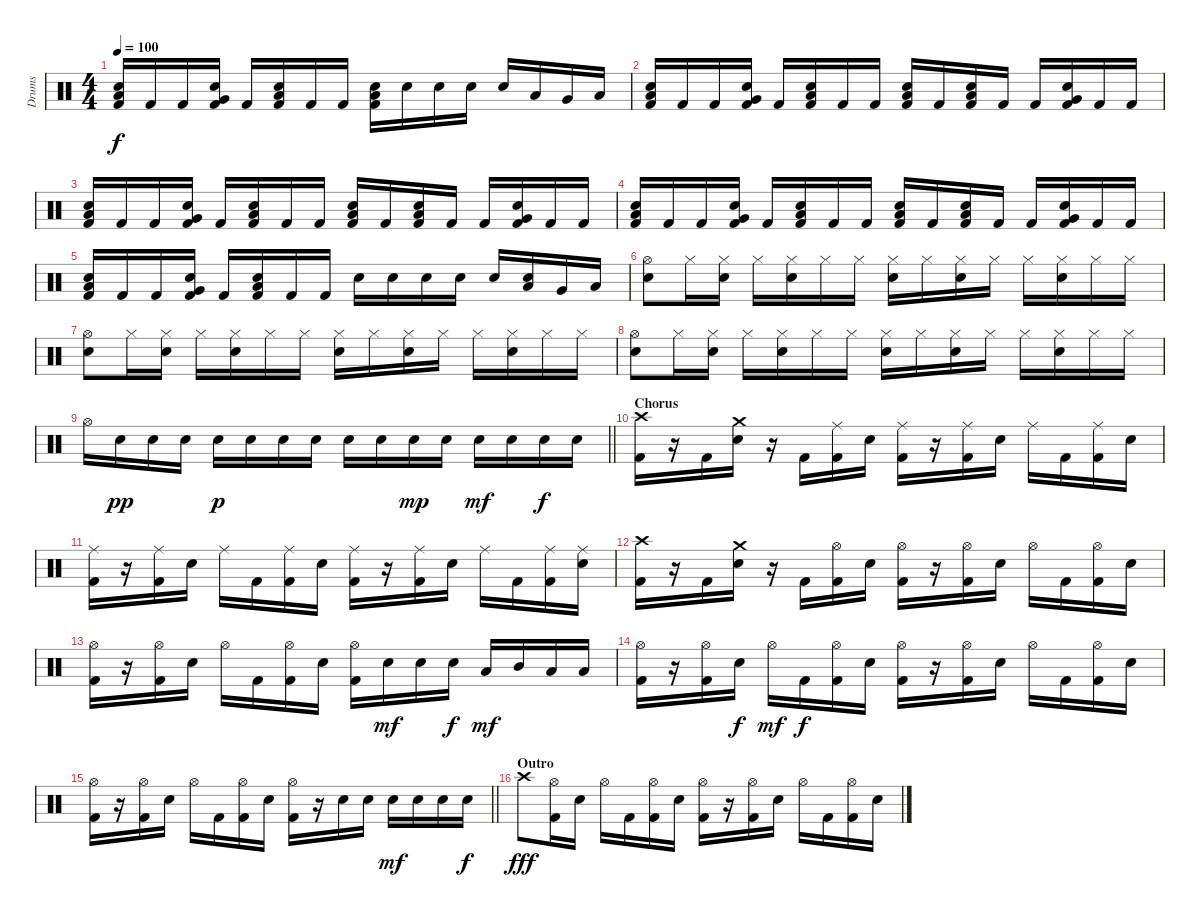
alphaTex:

\track ("Drums" "Drums") {instrument percussion}
\staff {score}
\articulation defaults
\ts (4 4)
\tempo 100
\clef neutral
\ks c
("Low Floor Tom (hit)" "Electric Snare (hit)" "Kick (hit) 2").16{dy f} "Kick (hit) 2".16 "Kick (hit) 2".16 ("Very Low Tom (hit)" "Electric Snare (hit)" "Kick (hit) 2").16 "Kick (hit) 2".16 ("Low Floor Tom (hit)" "Electric Snare (hit)" "Kick (hit) 2").16 "Kick (hit) 2".16 "Kick (hit) 2".16 ("Low Tom (hit)" "Electric Snare (hit)" "Kick (hit) 2").16 "Electric Snare (hit)".16 "Electric Snare (hit)".16 "Electric Snare (hit)".16 "Electric Snare (hit)".16 "Low Tom (hit)".16 "Very Low Tom (hit)".16 "Low Floor Tom (hit)".16 |
("Low Floor Tom (hit)" "Electric Snare (hit)" "Kick (hit) 2").16 "Kick (hit) 2".16 "Kick (hit) 2".16 ("Very Low Tom (hit)" "Electric Snare (hit)" "Kick (hit) 2").16 "Kick (hit) 2".16 ("Low Floor Tom (hit)" "Electric Snare (hit)" "Kick (hit) 2").16 "Kick (hit) 2".16 "Kick (hit) 2".16 ("Low Tom (hit)" "Electric Snare (hit)" "Kick (hit) 2").16 "Kick (hit) 2".16 ("Low Tom (hit)" "Electric Snare (hit)" "Kick (hit) 2").16 "Kick (hit) 2".16 "Kick (hit) 2".16 ("Very Low Tom (hit)" "Electric Snare (hit)" "Kick (hit) 2").16 "Kick (hit) 2".16 "Kick (hit) 2".16 |
("Low Floor Tom (hit)" "Electric Snare (hit)" "Kick (hit) 2").16 "Kick (hit) 2".16 "Kick (hit) 2".16 ("Very Low Tom (hit)" "Electric Snare (hit)" "Kick (hit) 2").16 "Kick (hit) 2".16 ("Low Floor Tom (hit)" "Electric Snare (hit)" "Kick (hit) 2").16 "Kick (hit) 2".16 "Kick (hit) 2".16 ("Low Tom (hit)" "Electric Snare (hit)" "Kick (hit) 2").16 "Kick (hit) 2".16 ("Low Tom (hit)" "Electric Snare (hit)" "Kick (hit) 2").16 "Kick (hit) 2".16 "Kick (hit) 2".16 ("Very Low Tom (hit)" "Electric Snare (hit)" "Kick (hit) 2").16 "Kick (hit) 2".16 "Kick (hit) 2".16 |
("Low Floor Tom (hit)" "Electric Snare (hit)" "Kick (hit) 2").16 "Kick (hit) 2".16 "Kick (hit) 2".16 ("Very Low Tom (hit)" "Electric Snare (hit)" "Kick (hit) 2").16 "Kick (hit) 2".16 ("Low Floor Tom (hit)" "Electric Snare (hit)" "Kick (hit) 2").16 "Kick (hit) 2".16 "Kick (hit) 2".16 ("Low Tom (hit)" "Electric Snare (hit)" "Kick (hit) 2").16 "Kick (hit) 2".16 ("Low Tom (hit)" "Electric Snare (hit)" "Kick (hit) 2").16 "Kick (hit) 2".16 "Kick (hit) 2".16 ("Very Low Tom (hit)" "Electric Snare (hit)" "Kick (hit) 2").16 "Kick (hit) 2".16 "Kick (hit) 2".16 |
("Low Floor Tom (hit)" "Electric Snare (hit)" "Kick (hit) 2").16 "Kick (hit) 2".16 "Kick (hit) 2".16 ("Very Low Tom (hit)" "Electric Snare (hit)" "Kick (hit) 2").16 "Kick (hit) 2".16 ("Low Floor Tom (hit)" "Electric Snare (hit)" "Kick (hit) 2").16 "Kick (hit) 2".16 "Kick (hit) 2".16 "Electric Snare (hit)".16 "Electric Snare (hit)".16 "Electric Snare (hit)".16 "Electric Snare (hit)".16 "Electric Snare (hit)".16 ("Low Tom (hit)" "Electric Snare (hit)").16 "Very Low Tom (hit)".16 "Low Floor Tom (hit)".16 |
("Hi-Hat (open)" "Electric Snare (hit)").8 "Hi-Hat (closed)".16 ("Hi-Hat (closed)" "Electric Snare (hit)").16 "Hi-Hat (closed)".16 ("Hi-Hat (closed)" "Electric Snare (hit)").16 "Hi-Hat (closed)".16 "Hi-Hat (closed)".16 ("Hi-Hat (closed)" "Electric Snare (hit)").16 "Hi-Hat (closed)".16 ("Hi-Hat (closed)" "Electric Snare (hit)").16 "Hi-Hat (closed)".16 "Hi-Hat (closed)".16 ("Hi-Hat (closed)" "Electric Snare (hit)").16 "Hi-Hat (closed)".16 "Hi-Hat (closed)".16 |
("Hi-Hat (open)" "Electric Snare (hit)").8 "Hi-Hat (closed)".16 ("Hi-Hat (closed)" "Electric Snare (hit)").16 "Hi-Hat (closed)".16 ("Hi-Hat (closed)" "Electric Snare (hit)").16 "Hi-Hat (closed)".16 "Hi-Hat (closed)".16 ("Hi-Hat (closed)" "Electric Snare (hit)").16 "Hi-Hat (closed)".16 ("Hi-Hat (closed)" "Electric Snare (hit)").16 "Hi-Hat (closed)".16 "Hi-Hat (closed)".16 ("Hi-Hat (closed)" "Electric Snare (hit)").16 "Hi-Hat (closed)".16 "Hi-Hat (closed)".16 |
("Hi-Hat (open)" "Electric Snare (hit)").8 "Hi-Hat (closed)".16 ("Hi-Hat (closed)" "Electric Snare (hit)").16 "Hi-Hat (closed)".16 ("Hi-Hat (closed)" "Electric Snare (hit)").16 "Hi-Hat (closed)".16 "Hi-Hat (closed)".16 ("Hi-Hat (closed)" "Electric Snare (hit)").16 "Hi-Hat (closed)".16 ("Hi-Hat (closed)" "Electric Snare (hit)").16 "Hi-Hat (closed)".16 "Hi-Hat (closed)".16 ("Hi-Hat (closed)" "Electric Snare (hit)").16 "Hi-Hat (closed)".16 "Hi-Hat (closed)".16 |
\barLineRight lightlight "Hi-Hat (open)".16 "Electric Snare (hit)".16{dy pp} "Electric Snare (hit)".16 "Electric Snare (hit)".16 "Electric Snare (hit)".16{dy p} "Electric Snare (hit)".16 "Electric Snare (hit)".16 "Electric Snare (hit)".16 "Electric Snare (hit)".16 "Electric Snare (hit)".16 "Electric Snare (hit)".16{dy mp} "Electric Snare (hit)".16 "Electric Snare (hit)".16{dy mf} "Electric Snare (hit)".16 "Electric Snare (hit)".16{dy f} "Electric Snare (hit)".16
|
\section ("" "Chorus")
("Crash high (hit)" "Kick (hit) 2").16 r.16 "Kick (hit) 2".16 ("Crash medium (hit)" "Electric Snare (hit)").16 r.16 "Kick (hit) 2".16 ("Ride (middle)" "Kick (hit) 2").16 "Electric Snare (hit)".16 ("Ride (middle)" "Kick (hit) 2").16 r.16 ("Ride (middle)" "Kick (hit) 2").16 "Electric Snare (hit)".16 "Ride (middle)".16 "Kick (hit) 2".16 ("Ride (middle)" "Kick (hit) 2").16 "Electric Snare (hit)".16 |
("Ride (middle)" "Kick (hit) 2").16 r.16 ("Ride (middle)" "Kick (hit) 2").16 "Electric Snare (hit)".16 "Ride (middle)".16 "Kick (hit) 2".16 ("Ride (middle)" "Kick (hit) 2").16 "Electric Snare (hit)".16 ("Ride (middle)" "Kick (hit) 2").16 r.16 ("Ride (middle)" "Kick (hit) 2").16 "Electric Snare (hit)".16 "Ride (middle)".16 "Kick (hit) 2".16 ("Ride (middle)" "Kick (hit) 2").16 ("Ride (middle)" "Electric Snare (hit)").16 |
("Crash high (hit)" "Kick (hit) 2").16 r.16 "Kick (hit) 2".16 ("Crash medium (hit)" "Electric Snare (hit)").16 r.16 "Kick (hit) 2".16 ("Hi-Hat (open)" "Kick (hit) 2").16 "Electric Snare (hit)".16 ("Hi-Hat (open)" "Kick (hit) 2").16 r.16 ("Hi-Hat (open)" "Kick (hit) 2").16 "Electric Snare (hit)".16 "Hi-Hat (open)".16 "Kick (hit) 2".16 ("Hi-Hat (open)" "Kick (hit) 2").16 "Electric Snare (hit)".16 |
("Hi-Hat (open)" "Kick (hit) 2").16 r.16 ("Hi-Hat (open)" "Kick (hit) 2").16 "Electric Snare (hit)".16 "Hi-Hat (open)".16 "Kick (hit) 2".16 ("Hi-Hat (open)" "Kick (hit) 2").16 "Electric Snare (hit)".16 ("Hi-Hat (open)" "Kick (hit) 2").16 "Electric Snare (hit)".16{dy mf} "Electric Snare (hit)".16 "Electric Snare (hit)".16{dy f} "Low Tom (hit)".16{dy mf} "Mid Tom (hit)".16 "Low Tom (hit)".16 "Low Floor Tom (hit)".16 |
("Hi-Hat (open)" "Kick (hit) 2").16 r.16 ("Hi-Hat (open)" "Kick (hit) 2").16 "Electric Snare (hit)".16{dy f} "Hi-Hat (open)".16{dy mf} "Kick (hit) 2".16{dy f} ("Hi-Hat (open)" "Kick (hit) 2").16 "Electric Snare (hit)".16 ("Hi-Hat (open)" "Kick (hit) 2").16 r.16 ("Hi-Hat (open)" "Kick (hit) 2").16 "Electric Snare (hit)".16 "Hi-Hat (open)".16 "Kick (hit) 2".16 ("Hi-Hat (open)" "Kick (hit) 2").16 "Electric Snare (hit)".16 |
\barLineRight lightlight
("Hi-Hat (open)" "Kick (hit) 2").16 r.16 ("Hi-Hat (open)" "Kick (hit) 2").16 "Electric Snare (hit)".16 "Hi-Hat (open)".16 "Kick (hit) 2".16 ("Hi-Hat (open)" "Kick (hit) 2").16 "Electric Snare (hit)".16 ("Hi-Hat (open)" "Kick (hit) 2").16 r.16 "Electric Snare (hit)".16 "Electric Snare (hit)".16 "Electric Snare (hit)".16{dy mf} "Electric Snare (hit)".16 "Electric Snare (hit)".16 "Electric Snare (hit)".16{dy f} |
\section ("" "Outro")
"Crash high (hit)".8{dy fff} ("Hi-Hat (open)" "Kick (hit) 2").16 "Electric Snare (hit)".16 "Hi-Hat (open)".16 "Kick (hit) 2".16 ("Hi-Hat (open)" "Kick (hit) 2").16 "Electric Snare (hit)".16 ("Hi-Hat (open)" "Kick (hit) 2").16 r.16 ("Hi-Hat (open)" "Kick (hit) 2").16 "Electric Snare (hit)".16 "Hi-Hat (open)".16 "Kick (hit) 2".16 ("Hi-Hat (open)" "Kick (hit) 2").16 "Electric Snare (hit)".16
